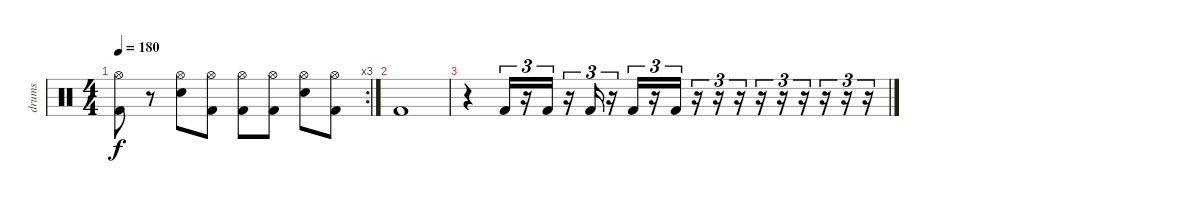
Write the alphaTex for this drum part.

\track ("drums" "drums") {instrument percussion}
\staff {score}
\articulation defaults
\rc 3
\ts (4 4)
\tempo 180
\clef neutral
\ks c
("Hi-Hat (open)" "Kick (hit) 2").8{dy f} r.8 ("Hi-Hat (open)" "Electric Snare (hit)").8 ("Hi-Hat (open)" "Kick (hit) 2").8 ("Hi-Hat (open)" "Kick (hit) 2").8 ("Hi-Hat (open)" "Kick (hit) 2").8 ("Hi-Hat (open)" "Electric Snare (hit)").8 ("Hi-Hat (open)" "Kick (hit) 2").8 |
"Kick (hit) 2".1 |
r.4 "Kick (hit) 2".16{tu (3 2)} r.16{tu (3 2)} "Kick (hit) 2".16{tu (3 2)} r.16{tu (3 2)} "Kick (hit) 2".16{tu (3 2)} r.16{tu (3 2)} "Kick (hit) 2".16{tu (3 2)} r.16{tu (3 2)} "Kick (hit) 2".16{tu (3 2)} r.16{tu (3 2)} r.16{tu (3 2)} r.16{tu (3 2)} r.16{tu (3 2)} r.16{tu (3 2)} r.16{tu (3 2)} r.16{tu (3 2)} r.16{tu (3 2)} r.16{tu (3 2)}
